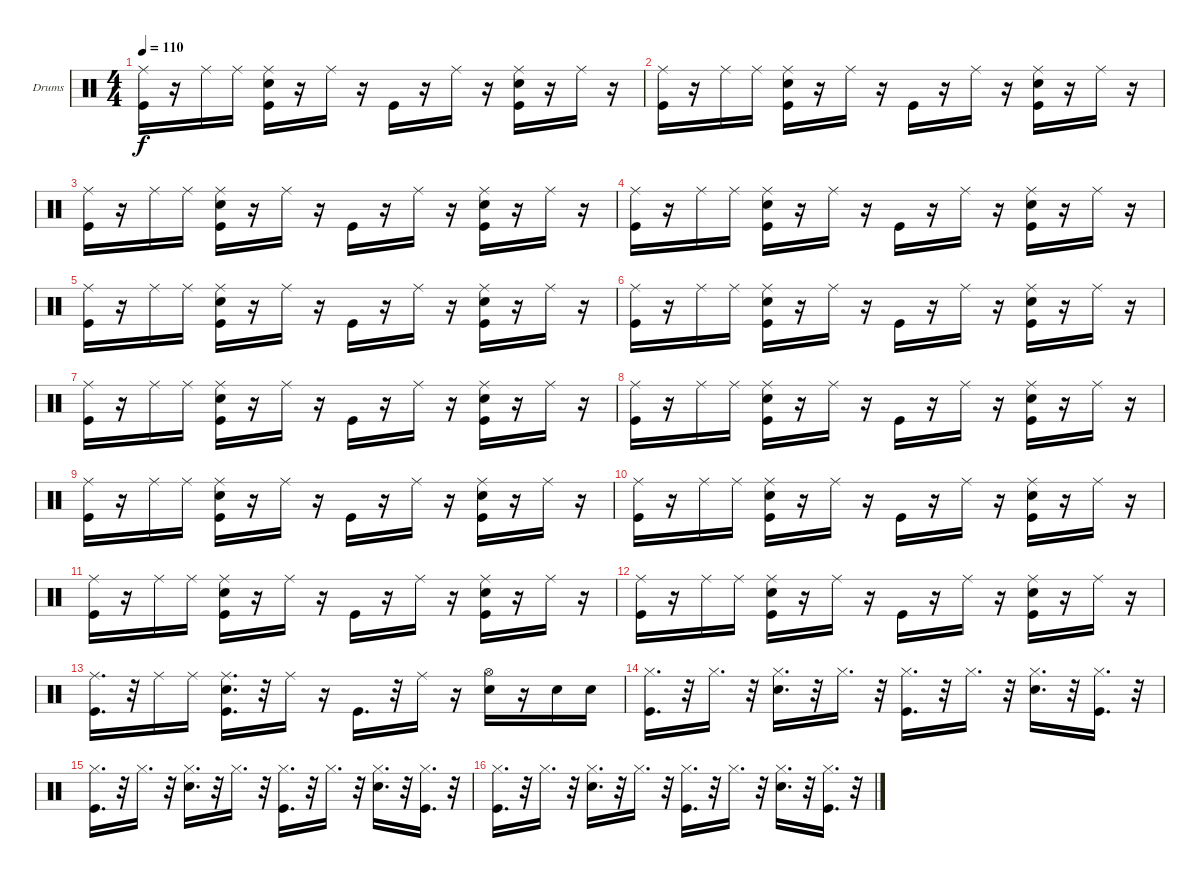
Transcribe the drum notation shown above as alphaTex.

\bracketExtendMode groupsimilarinstruments
\firstSystemTrackNameOrientation horizontal
\otherSystemsTrackNameOrientation horizontal
\track ("Drumkit" "Drums") {instrument percussion}
\staff {score}
\articulation defaults
\ts (4 4)
\tempo 110
\clef neutral
\ks c
("Kick (hit)" "Ride (middle)").16{dy f} r.16 "Ride (middle)".16 "Ride (middle)".16 ("Snare (hit) 2" "Ride (middle)" "Kick (hit)").16 r.16 "Ride (middle)".16 r.16 "Kick (hit)".16 r.16 "Ride (middle)".16 r.16 ("Snare (hit) 2" "Ride (middle)" "Kick (hit)").16 r.16 "Ride (middle)".16 r.16 |
("Kick (hit)" "Ride (middle)").16 r.16 "Ride (middle)".16 "Ride (middle)".16 ("Snare (hit) 2" "Ride (middle)" "Kick (hit)").16 r.16 "Ride (middle)".16 r.16 "Kick (hit)".16 r.16 "Ride (middle)".16 r.16 ("Snare (hit) 2" "Ride (middle)" "Kick (hit)").16 r.16 "Ride (middle)".16 r.16 |
("Kick (hit)" "Ride (middle)").16 r.16 "Ride (middle)".16 "Ride (middle)".16 ("Snare (hit) 2" "Ride (middle)" "Kick (hit)").16 r.16 "Ride (middle)".16 r.16 "Kick (hit)".16 r.16 "Ride (middle)".16 r.16 ("Snare (hit) 2" "Ride (middle)" "Kick (hit)").16 r.16 "Ride (middle)".16 r.16 |
("Kick (hit)" "Ride (middle)").16 r.16 "Ride (middle)".16 "Ride (middle)".16 ("Snare (hit) 2" "Ride (middle)" "Kick (hit)").16 r.16 "Ride (middle)".16 r.16 "Kick (hit)".16 r.16 "Ride (middle)".16 r.16 ("Snare (hit) 2" "Ride (middle)" "Kick (hit)").16 r.16 "Ride (middle)".16 r.16 |
("Kick (hit)" "Ride (middle)").16 r.16 "Ride (middle)".16 "Ride (middle)".16 ("Snare (hit) 2" "Ride (middle)" "Kick (hit)").16 r.16 "Ride (middle)".16 r.16 "Kick (hit)".16 r.16 "Ride (middle)".16 r.16 ("Snare (hit) 2" "Ride (middle)" "Kick (hit)").16 r.16 "Ride (middle)".16 r.16 |
("Kick (hit)" "Ride (middle)").16 r.16 "Ride (middle)".16 "Ride (middle)".16 ("Snare (hit) 2" "Ride (middle)" "Kick (hit)").16 r.16 "Ride (middle)".16 r.16 "Kick (hit)".16 r.16 "Ride (middle)".16 r.16 ("Snare (hit) 2" "Ride (middle)" "Kick (hit)").16 r.16 "Ride (middle)".16 r.16 |
("Kick (hit)" "Ride (middle)").16 r.16 "Ride (middle)".16 "Ride (middle)".16 ("Snare (hit) 2" "Ride (middle)" "Kick (hit)").16 r.16 "Ride (middle)".16 r.16 "Kick (hit)".16 r.16 "Ride (middle)".16 r.16 ("Snare (hit) 2" "Ride (middle)" "Kick (hit)").16 r.16 "Ride (middle)".16 r.16 |
("Kick (hit)" "Ride (middle)").16 r.16 "Ride (middle)".16 "Ride (middle)".16 ("Snare (hit) 2" "Ride (middle)" "Kick (hit)").16 r.16 "Ride (middle)".16 r.16 "Kick (hit)".16 r.16 "Ride (middle)".16 r.16 ("Snare (hit) 2" "Ride (middle)" "Kick (hit)").16 r.16 "Ride (middle)".16 r.16 |
("Kick (hit)" "Ride (middle)").16 r.16 "Ride (middle)".16 "Ride (middle)".16 ("Snare (hit) 2" "Ride (middle)" "Kick (hit)").16 r.16 "Ride (middle)".16 r.16 "Kick (hit)".16 r.16 "Ride (middle)".16 r.16 ("Snare (hit) 2" "Ride (middle)" "Kick (hit)").16 r.16 "Ride (middle)".16 r.16 |
("Kick (hit)" "Ride (middle)").16 r.16 "Ride (middle)".16 "Ride (middle)".16 ("Snare (hit) 2" "Ride (middle)" "Kick (hit)").16 r.16 "Ride (middle)".16 r.16 "Kick (hit)".16 r.16 "Ride (middle)".16 r.16 ("Snare (hit) 2" "Ride (middle)" "Kick (hit)").16 r.16 "Ride (middle)".16 r.16 |
("Kick (hit)" "Ride (middle)").16 r.16 "Ride (middle)".16 "Ride (middle)".16 ("Snare (hit) 2" "Ride (middle)" "Kick (hit)").16 r.16 "Ride (middle)".16 r.16 "Kick (hit)".16 r.16 "Ride (middle)".16 r.16 ("Snare (hit) 2" "Ride (middle)" "Kick (hit)").16 r.16 "Ride (middle)".16 r.16 |
("Kick (hit)" "Ride (middle)").16 r.16 "Ride (middle)".16 "Ride (middle)".16 ("Snare (hit) 2" "Ride (middle)" "Kick (hit)").16 r.16 "Ride (middle)".16 r.16 "Kick (hit)".16 r.16 "Ride (middle)".16 r.16 ("Snare (hit) 2" "Ride (middle)" "Kick (hit)").16 r.16 "Ride (middle)".16 r.16 |
("Ride (middle)" "Kick (hit)").16{d} r.32 "Ride (middle)".16 "Ride (middle)".16 ("Snare (hit) 2" "Ride (middle)" "Kick (hit)").16{d} r.32 "Ride (middle)".16 r.16 "Kick (hit)".16{d} r.32 "Ride (middle)".16 r.16 ("Hi-Hat (open)" "Snare (hit) 2").16 r.16 "Snare (hit) 2".16 "Snare (hit) 2".16 |
("Hi-Hat (closed)" "Kick (hit)").16{d} r.32 "Hi-Hat (closed)".16{d} r.32 ("Snare (hit) 2" "Hi-Hat (closed)").16{d} r.32 "Hi-Hat (closed)".16{d} r.32 ("Hi-Hat (closed)" "Kick (hit)").16{d} r.32 "Hi-Hat (closed)".16{d} r.32 ("Snare (hit) 2" "Hi-Hat (closed)").16{d} r.32 ("Kick (hit)" "Hi-Hat (closed)").16{d} r.32 |
("Hi-Hat (closed)" "Kick (hit)").16{d} r.32 "Hi-Hat (closed)".16{d} r.32 ("Snare (hit) 2" "Hi-Hat (closed)").16{d} r.32 "Hi-Hat (closed)".16{d} r.32 ("Hi-Hat (closed)" "Kick (hit)").16{d} r.32 "Hi-Hat (closed)".16{d} r.32 ("Snare (hit) 2" "Hi-Hat (closed)").16{d} r.32 ("Kick (hit)" "Hi-Hat (closed)").16{d} r.32 |
("Hi-Hat (closed)" "Kick (hit)").16{d} r.32 "Hi-Hat (closed)".16{d} r.32 ("Snare (hit) 2" "Hi-Hat (closed)").16{d} r.32 "Hi-Hat (closed)".16{d} r.32 ("Hi-Hat (closed)" "Kick (hit)").16{d} r.32 "Hi-Hat (closed)".16{d} r.32 ("Snare (hit) 2" "Hi-Hat (closed)").16{d} r.32 ("Kick (hit)" "Hi-Hat (closed)").16{d} r.32
